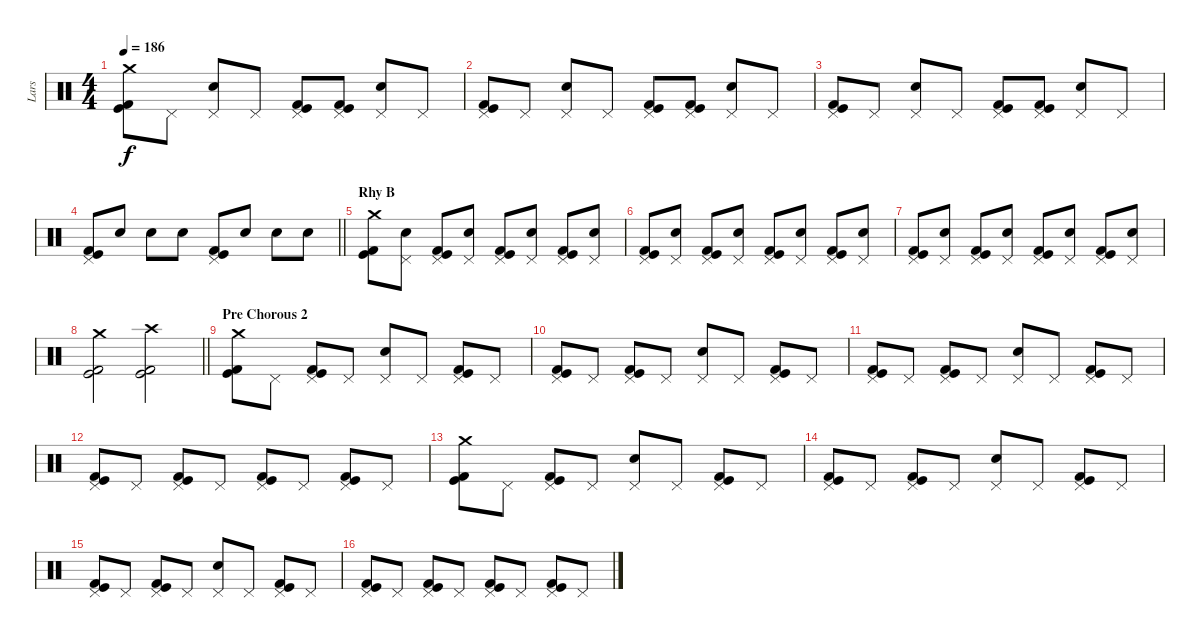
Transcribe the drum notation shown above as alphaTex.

\track ("Lars" "Lars") {instrument percussion}
\staff {score}
\articulation defaults
\ts (4 4)
\tempo 186
\clef neutral
\ks c
("Crash medium (hit)" "Kick (hit)" "Kick (hit) 2").8{dy f} "Pedal Hi-Hat (hit)".8 ("Pedal Hi-Hat (hit)" "Electric Snare (hit)").8 "Pedal Hi-Hat (hit)".8 ("Pedal Hi-Hat (hit)" "Kick (hit)" "Kick (hit) 2").8 ("Pedal Hi-Hat (hit)" "Kick (hit)" "Kick (hit) 2").8 ("Pedal Hi-Hat (hit)" "Electric Snare (hit)").8 "Pedal Hi-Hat (hit)".8 |
("Pedal Hi-Hat (hit)" "Kick (hit)" "Kick (hit) 2").8 "Pedal Hi-Hat (hit)".8 ("Pedal Hi-Hat (hit)" "Electric Snare (hit)").8 "Pedal Hi-Hat (hit)".8 ("Pedal Hi-Hat (hit)" "Kick (hit)" "Kick (hit) 2").8 ("Pedal Hi-Hat (hit)" "Kick (hit)" "Kick (hit) 2").8 ("Pedal Hi-Hat (hit)" "Electric Snare (hit)").8 "Pedal Hi-Hat (hit)".8 |
("Pedal Hi-Hat (hit)" "Kick (hit)" "Kick (hit) 2").8 "Pedal Hi-Hat (hit)".8 ("Pedal Hi-Hat (hit)" "Electric Snare (hit)").8 "Pedal Hi-Hat (hit)".8 ("Pedal Hi-Hat (hit)" "Kick (hit)" "Kick (hit) 2").8 ("Pedal Hi-Hat (hit)" "Kick (hit)" "Kick (hit) 2").8 ("Pedal Hi-Hat (hit)" "Electric Snare (hit)").8 "Pedal Hi-Hat (hit)".8 |
\barLineRight lightlight
("Pedal Hi-Hat (hit)" "Kick (hit)" "Kick (hit) 2").8 "Electric Snare (hit)".8 "Electric Snare (hit)".8 "Electric Snare (hit)".8 ("Pedal Hi-Hat (hit)" "Kick (hit)" "Kick (hit) 2").8 "Electric Snare (hit)".8 "Electric Snare (hit)".8 "Electric Snare (hit)".8 |
\section ("" "Rhy B")
("Crash medium (hit)" "Kick (hit)" "Kick (hit) 2").8 ("Pedal Hi-Hat (hit)" "Electric Snare (hit)").8 ("Pedal Hi-Hat (hit)" "Kick (hit)" "Kick (hit) 2").8 ("Pedal Hi-Hat (hit)" "Electric Snare (hit)").8 ("Pedal Hi-Hat (hit)" "Kick (hit)" "Kick (hit) 2").8 ("Pedal Hi-Hat (hit)" "Electric Snare (hit)").8 ("Pedal Hi-Hat (hit)" "Kick (hit)" "Kick (hit) 2").8 ("Pedal Hi-Hat (hit)" "Electric Snare (hit)").8 |
("Pedal Hi-Hat (hit)" "Kick (hit)" "Kick (hit) 2").8 ("Pedal Hi-Hat (hit)" "Electric Snare (hit)").8 ("Pedal Hi-Hat (hit)" "Kick (hit)" "Kick (hit) 2").8 ("Pedal Hi-Hat (hit)" "Electric Snare (hit)").8 ("Pedal Hi-Hat (hit)" "Kick (hit)" "Kick (hit) 2").8 ("Pedal Hi-Hat (hit)" "Electric Snare (hit)").8 ("Pedal Hi-Hat (hit)" "Kick (hit)" "Kick (hit) 2").8 ("Pedal Hi-Hat (hit)" "Electric Snare (hit)").8 |
("Pedal Hi-Hat (hit)" "Kick (hit)" "Kick (hit) 2").8 ("Pedal Hi-Hat (hit)" "Electric Snare (hit)").8 ("Pedal Hi-Hat (hit)" "Kick (hit)" "Kick (hit) 2").8 ("Pedal Hi-Hat (hit)" "Electric Snare (hit)").8 ("Pedal Hi-Hat (hit)" "Kick (hit)" "Kick (hit) 2").8 ("Pedal Hi-Hat (hit)" "Electric Snare (hit)").8 ("Pedal Hi-Hat (hit)" "Kick (hit)" "Kick (hit) 2").8 ("Pedal Hi-Hat (hit)" "Electric Snare (hit)").8 |
\barLineRight lightlight
("Crash medium (hit)" "Kick (hit)" "Kick (hit) 2").2 ("Crash high (hit)" "Kick (hit)" "Kick (hit) 2").2 |
\section ("" "Pre Chorous 2")
("Crash medium (hit)" "Kick (hit)" "Kick (hit) 2").8 "Pedal Hi-Hat (hit)".8 ("Pedal Hi-Hat (hit)" "Kick (hit)" "Kick (hit) 2").8 "Pedal Hi-Hat (hit)".8 ("Pedal Hi-Hat (hit)" "Electric Snare (hit)").8 "Pedal Hi-Hat (hit)".8 ("Pedal Hi-Hat (hit)" "Kick (hit)" "Kick (hit) 2").8 "Pedal Hi-Hat (hit)".8 |
("Pedal Hi-Hat (hit)" "Kick (hit)" "Kick (hit) 2").8 "Pedal Hi-Hat (hit)".8 ("Pedal Hi-Hat (hit)" "Kick (hit)" "Kick (hit) 2").8 "Pedal Hi-Hat (hit)".8 ("Pedal Hi-Hat (hit)" "Electric Snare (hit)").8 "Pedal Hi-Hat (hit)".8 ("Pedal Hi-Hat (hit)" "Kick (hit)" "Kick (hit) 2").8 "Pedal Hi-Hat (hit)".8 |
("Pedal Hi-Hat (hit)" "Kick (hit)" "Kick (hit) 2").8 "Pedal Hi-Hat (hit)".8 ("Pedal Hi-Hat (hit)" "Kick (hit)" "Kick (hit) 2").8 "Pedal Hi-Hat (hit)".8 ("Pedal Hi-Hat (hit)" "Electric Snare (hit)").8 "Pedal Hi-Hat (hit)".8 ("Pedal Hi-Hat (hit)" "Kick (hit)" "Kick (hit) 2").8 "Pedal Hi-Hat (hit)".8 |
("Pedal Hi-Hat (hit)" "Kick (hit)" "Kick (hit) 2").8 "Pedal Hi-Hat (hit)".8 ("Pedal Hi-Hat (hit)" "Kick (hit)" "Kick (hit) 2").8 "Pedal Hi-Hat (hit)".8 ("Pedal Hi-Hat (hit)" "Kick (hit)" "Kick (hit) 2").8 "Pedal Hi-Hat (hit)".8 ("Pedal Hi-Hat (hit)" "Kick (hit)" "Kick (hit) 2").8 "Pedal Hi-Hat (hit)".8 |
("Crash medium (hit)" "Kick (hit)" "Kick (hit) 2").8 "Pedal Hi-Hat (hit)".8 ("Pedal Hi-Hat (hit)" "Kick (hit)" "Kick (hit) 2").8 "Pedal Hi-Hat (hit)".8 ("Pedal Hi-Hat (hit)" "Electric Snare (hit)").8 "Pedal Hi-Hat (hit)".8 ("Pedal Hi-Hat (hit)" "Kick (hit)" "Kick (hit) 2").8 "Pedal Hi-Hat (hit)".8 |
("Pedal Hi-Hat (hit)" "Kick (hit)" "Kick (hit) 2").8 "Pedal Hi-Hat (hit)".8 ("Pedal Hi-Hat (hit)" "Kick (hit)" "Kick (hit) 2").8 "Pedal Hi-Hat (hit)".8 ("Pedal Hi-Hat (hit)" "Electric Snare (hit)").8 "Pedal Hi-Hat (hit)".8 ("Pedal Hi-Hat (hit)" "Kick (hit)" "Kick (hit) 2").8 "Pedal Hi-Hat (hit)".8 |
("Pedal Hi-Hat (hit)" "Kick (hit)" "Kick (hit) 2").8 "Pedal Hi-Hat (hit)".8 ("Pedal Hi-Hat (hit)" "Kick (hit)" "Kick (hit) 2").8 "Pedal Hi-Hat (hit)".8 ("Pedal Hi-Hat (hit)" "Electric Snare (hit)").8 "Pedal Hi-Hat (hit)".8 ("Pedal Hi-Hat (hit)" "Kick (hit)" "Kick (hit) 2").8 "Pedal Hi-Hat (hit)".8 |
("Pedal Hi-Hat (hit)" "Kick (hit)" "Kick (hit) 2").8 "Pedal Hi-Hat (hit)".8 ("Pedal Hi-Hat (hit)" "Kick (hit)" "Kick (hit) 2").8 "Pedal Hi-Hat (hit)".8 ("Pedal Hi-Hat (hit)" "Kick (hit)" "Kick (hit) 2").8 "Pedal Hi-Hat (hit)".8 ("Pedal Hi-Hat (hit)" "Kick (hit)" "Kick (hit) 2").8 "Pedal Hi-Hat (hit)".8
